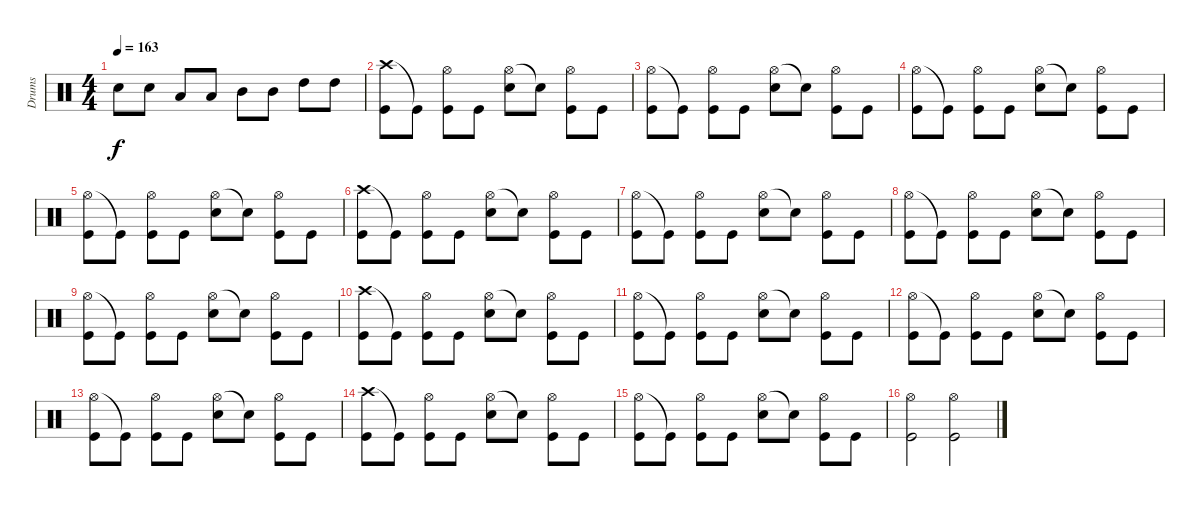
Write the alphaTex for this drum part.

\track ("Drums" "Drums") {instrument percussion}
\staff {score}
\articulation defaults
\ts (4 4)
\tempo 163
\clef neutral
\ks c "Snare (hit) 2".8{dy f} "Snare (hit) 2".8 "Low Tom (hit)".8 "Low Tom (hit)".8 "Mid Tom (hit)".8 "Mid Tom (hit)".8 "High Tom (hit)".8 "High Tom (hit)".8
|
("Crash high (hit)" "Kick (hit)").8 "Kick (hit)"{t}.8 ("Hi-Hat (open)" "Kick (hit)").8 "Kick (hit)".8 ("Hi-Hat (open)" "Snare (hit) 2").8 "Snare (hit)"{t}.8 ("Hi-Hat (open)" "Kick (hit)").8 "Kick (hit)".8 |
("Hi-Hat (open)" "Kick (hit)").8 "Kick (hit)"{t}.8 ("Hi-Hat (open)" "Kick (hit)").8 "Kick (hit)".8 ("Hi-Hat (open)" "Snare (hit) 2").8 "Snare (hit)"{t}.8 ("Hi-Hat (open)" "Kick (hit)").8 "Kick (hit)".8 |
("Hi-Hat (open)" "Kick (hit)").8 "Kick (hit)"{t}.8 ("Hi-Hat (open)" "Kick (hit)").8 "Kick (hit)".8 ("Hi-Hat (open)" "Snare (hit) 2").8 "Snare (hit)"{t}.8 ("Hi-Hat (open)" "Kick (hit)").8 "Kick (hit)".8 |
("Hi-Hat (open)" "Kick (hit)").8 "Kick (hit)"{t}.8 ("Hi-Hat (open)" "Kick (hit)").8 "Kick (hit)".8 ("Hi-Hat (open)" "Snare (hit) 2").8 "Snare (hit)"{t}.8 ("Hi-Hat (open)" "Kick (hit)").8 "Kick (hit)".8 |
("Crash high (hit)" "Kick (hit)").8 "Kick (hit)"{t}.8 ("Hi-Hat (open)" "Kick (hit)").8 "Kick (hit)".8 ("Hi-Hat (open)" "Snare (hit) 2").8 "Snare (hit)"{t}.8 ("Hi-Hat (open)" "Kick (hit)").8 "Kick (hit)".8 |
("Hi-Hat (open)" "Kick (hit)").8 "Kick (hit)"{t}.8 ("Hi-Hat (open)" "Kick (hit)").8 "Kick (hit)".8 ("Hi-Hat (open)" "Snare (hit) 2").8 "Snare (hit)"{t}.8 ("Hi-Hat (open)" "Kick (hit)").8 "Kick (hit)".8 |
("Hi-Hat (open)" "Kick (hit)").8 "Kick (hit)"{t}.8 ("Hi-Hat (open)" "Kick (hit)").8 "Kick (hit)".8 ("Hi-Hat (open)" "Snare (hit) 2").8 "Snare (hit)"{t}.8 ("Hi-Hat (open)" "Kick (hit)").8 "Kick (hit)".8 |
("Hi-Hat (open)" "Kick (hit)").8 "Kick (hit)"{t}.8 ("Hi-Hat (open)" "Kick (hit)").8 "Kick (hit)".8 ("Hi-Hat (open)" "Snare (hit) 2").8 "Snare (hit)"{t}.8 ("Hi-Hat (open)" "Kick (hit)").8 "Kick (hit)".8 |
("Crash high (hit)" "Kick (hit)").8 "Kick (hit)"{t}.8 ("Hi-Hat (open)" "Kick (hit)").8 "Kick (hit)".8 ("Hi-Hat (open)" "Snare (hit) 2").8 "Snare (hit)"{t}.8 ("Hi-Hat (open)" "Kick (hit)").8 "Kick (hit)".8 |
("Hi-Hat (open)" "Kick (hit)").8 "Kick (hit)"{t}.8 ("Hi-Hat (open)" "Kick (hit)").8 "Kick (hit)".8 ("Hi-Hat (open)" "Snare (hit) 2").8 "Snare (hit)"{t}.8 ("Hi-Hat (open)" "Kick (hit)").8 "Kick (hit)".8 |
("Hi-Hat (open)" "Kick (hit)").8 "Kick (hit)"{t}.8 ("Hi-Hat (open)" "Kick (hit)").8 "Kick (hit)".8 ("Hi-Hat (open)" "Snare (hit) 2").8 "Snare (hit)"{t}.8 ("Hi-Hat (open)" "Kick (hit)").8 "Kick (hit)".8 |
("Hi-Hat (open)" "Kick (hit)").8 "Kick (hit)"{t}.8 ("Hi-Hat (open)" "Kick (hit)").8 "Kick (hit)".8 ("Hi-Hat (open)" "Snare (hit) 2").8 "Snare (hit)"{t}.8 ("Hi-Hat (open)" "Kick (hit)").8 "Kick (hit)".8 |
("Crash high (hit)" "Kick (hit)").8 "Kick (hit)"{t}.8 ("Hi-Hat (open)" "Kick (hit)").8 "Kick (hit)".8 ("Hi-Hat (open)" "Snare (hit) 2").8 "Snare (hit)"{t}.8 ("Hi-Hat (open)" "Kick (hit)").8 "Kick (hit)".8 |
("Hi-Hat (open)" "Kick (hit)").8 "Kick (hit)"{t}.8 ("Hi-Hat (open)" "Kick (hit)").8 "Kick (hit)".8 ("Hi-Hat (open)" "Snare (hit) 2").8 "Snare (hit)"{t}.8 ("Hi-Hat (open)" "Kick (hit)").8 "Kick (hit)".8 |
("Hi-Hat (open)" "Kick (hit)").2 ("Hi-Hat (open)" "Kick (hit)").2
